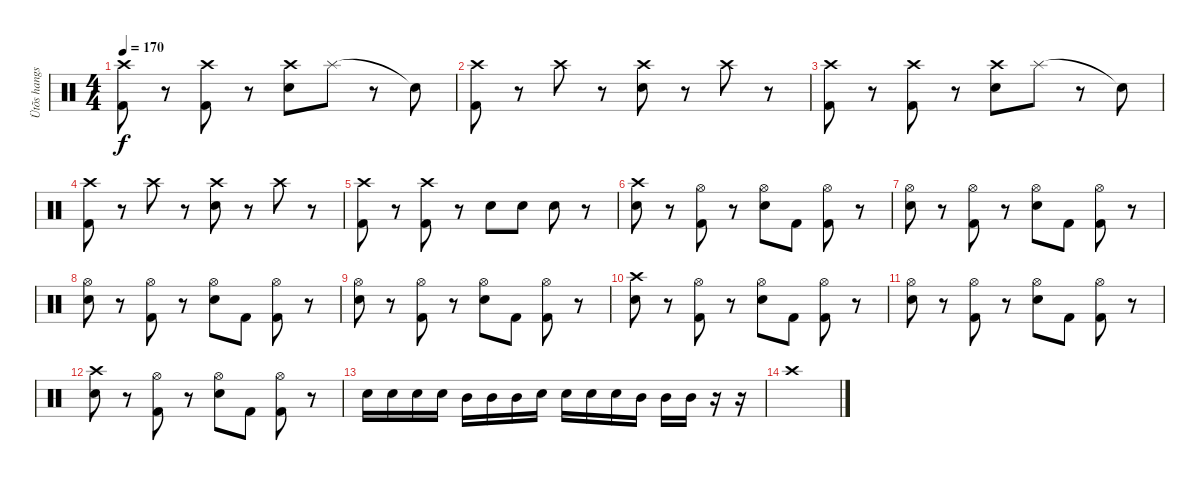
\track ("Ütõs hangszer" "Ütõs hangs") {instrument percussion}
\staff {score}
\articulation defaults
\ts (4 4)
\tempo 170
\clef neutral
\ks c
("Crash high (hit)" "Kick (hit) 2").8{dy f} r.8 ("Crash high (hit)" "Kick (hit) 2").8 r.8 ("Crash high (hit)" "Snare (hit) 2").8 "Splash (hit)".8 r.8 "Snare (hit)"{t}.8 |
("Crash high (hit)" "Kick (hit) 2").8 r.8 "Crash high (hit)".8 r.8 ("Crash high (hit)" "Snare (hit) 2").8 r.8 "Crash high (hit)".8 r.8 |
("Crash high (hit)" "Kick (hit) 2").8 r.8 ("Crash high (hit)" "Kick (hit) 2").8 r.8 ("Crash high (hit)" "Snare (hit) 2").8 "Splash (hit)".8 r.8 "Snare (hit)"{t}.8 |
("Crash high (hit)" "Kick (hit) 2").8 r.8 "Crash high (hit)".8 r.8 ("Crash high (hit)" "Snare (hit) 2").8 r.8 "Crash high (hit)".8 r.8 |
("Crash high (hit)" "Kick (hit) 2").8 r.8 ("Crash high (hit)" "Kick (hit) 2").8 r.8 "Snare (hit) 2".8 "Snare (hit) 2".8 "Snare (hit) 2".8 r.8 |
("Crash high (hit)" "Snare (hit) 2").8 r.8 ("Hi-Hat (open)" "Kick (hit) 2").8 r.8 ("Hi-Hat (open)" "Snare (hit) 2").8 "Kick (hit) 2".8 ("Hi-Hat (open)" "Kick (hit) 2").8 r.8 |
("Hi-Hat (open)" "Snare (hit) 2").8 r.8 ("Hi-Hat (open)" "Kick (hit) 2").8 r.8 ("Hi-Hat (open)" "Snare (hit) 2").8 "Kick (hit) 2".8 ("Hi-Hat (open)" "Kick (hit) 2").8 r.8 |
("Hi-Hat (open)" "Snare (hit) 2").8 r.8 ("Hi-Hat (open)" "Kick (hit) 2").8 r.8 ("Hi-Hat (open)" "Snare (hit) 2").8 "Kick (hit) 2".8 ("Hi-Hat (open)" "Kick (hit) 2").8 r.8 |
("Hi-Hat (open)" "Snare (hit) 2").8 r.8 ("Hi-Hat (open)" "Kick (hit) 2").8 r.8 ("Hi-Hat (open)" "Snare (hit) 2").8 "Kick (hit) 2".8 ("Hi-Hat (open)" "Kick (hit) 2").8 r.8 |
("Crash high (hit)" "Snare (hit) 2").8 r.8 ("Hi-Hat (open)" "Kick (hit) 2").8 r.8 ("Hi-Hat (open)" "Snare (hit) 2").8 "Kick (hit) 2".8 ("Hi-Hat (open)" "Kick (hit) 2").8 r.8 |
("Hi-Hat (open)" "Snare (hit) 2").8 r.8 ("Hi-Hat (open)" "Kick (hit) 2").8 r.8 ("Hi-Hat (open)" "Snare (hit) 2").8 "Kick (hit) 2".8 ("Hi-Hat (open)" "Kick (hit) 2").8 r.8 |
("Crash high (hit)" "Snare (hit) 2").8 r.8 ("Hi-Hat (open)" "Kick (hit) 2").8 r.8 ("Hi-Hat (open)" "Snare (hit) 2").8 "Kick (hit) 2".8 ("Hi-Hat (open)" "Kick (hit) 2").8 r.8 |
"Snare (hit) 2".16 "Snare (hit) 2".16 "Snare (hit) 2".16 "Snare (hit) 2".16 "Mid Tom (hit)".16 "Mid Tom (hit)".16 "Mid Tom (hit)".16 "Snare (hit) 2".16 "Snare (hit) 2".16 "Snare (hit) 2".16 "Snare (hit) 2".16 "Mid Tom (hit)".16 "Mid Tom (hit)".16 "Mid Tom (hit)".16 r.16 r.16 |
"Crash high (hit)".1
